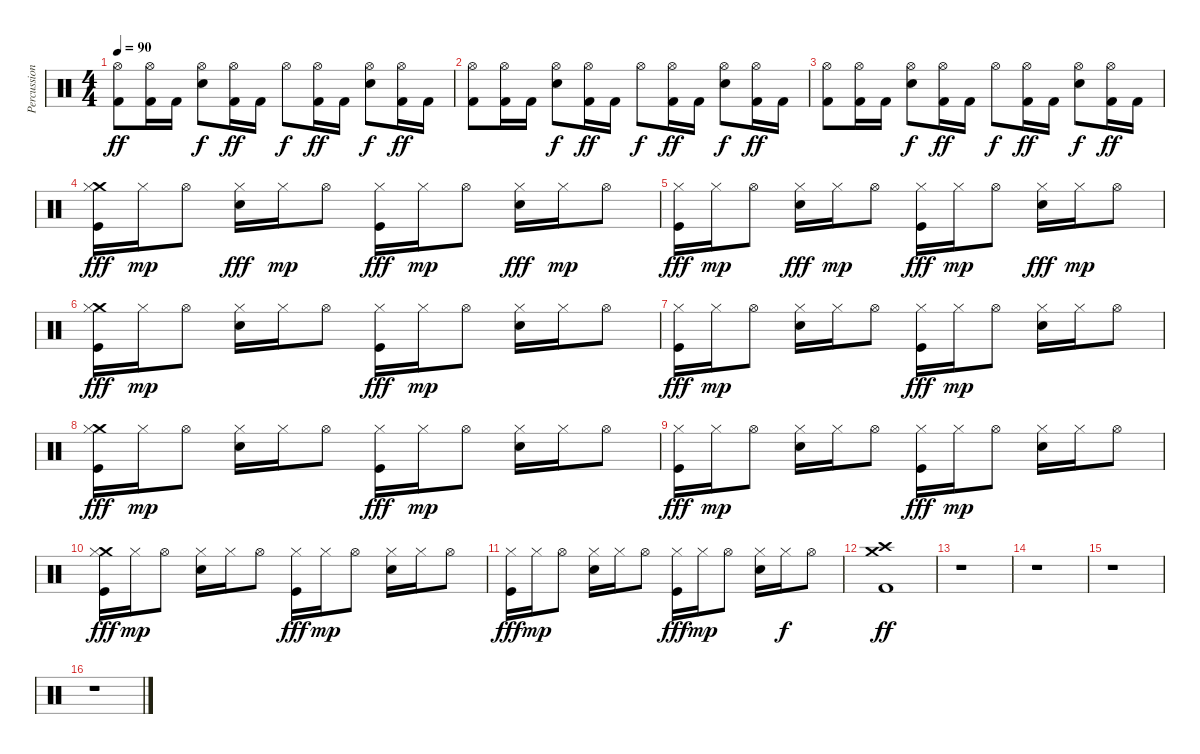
\track ("Percussion" "Percussion") {instrument percussion}
\staff {score}
\articulation defaults
\ts (4 4)
\tempo 90
\clef neutral
\ks c
("Hi-Hat (open)" "Kick (hit) 2").8{dy ff} ("Hi-Hat (open)" "Kick (hit) 2").16 "Kick (hit) 2".16 ("Hi-Hat (open)" "Electric Snare (hit)").8{dy f} ("Hi-Hat (open)" "Kick (hit) 2").16{dy ff} "Kick (hit) 2".16 "Hi-Hat (open)".8{dy f} ("Hi-Hat (open)" "Kick (hit) 2").16{dy ff} "Kick (hit) 2".16 ("Hi-Hat (open)" "Electric Snare (hit)").8{dy f} ("Hi-Hat (open)" "Kick (hit) 2").16{dy ff} "Kick (hit) 2".16 |
("Hi-Hat (open)" "Kick (hit) 2").8 ("Hi-Hat (open)" "Kick (hit) 2").16 "Kick (hit) 2".16 ("Hi-Hat (open)" "Electric Snare (hit)").8{dy f} ("Hi-Hat (open)" "Kick (hit) 2").16{dy ff} "Kick (hit) 2".16 "Hi-Hat (open)".8{dy f} ("Hi-Hat (open)" "Kick (hit) 2").16{dy ff} "Kick (hit) 2".16 ("Hi-Hat (open)" "Electric Snare (hit)").8{dy f} ("Hi-Hat (open)" "Kick (hit) 2").16{dy ff} "Kick (hit) 2".16 |
("Hi-Hat (open)" "Kick (hit) 2").8 ("Hi-Hat (open)" "Kick (hit) 2").16 "Kick (hit) 2".16 ("Hi-Hat (open)" "Electric Snare (hit)").8{dy f} ("Hi-Hat (open)" "Kick (hit) 2").16{dy ff} "Kick (hit) 2".16 "Hi-Hat (open)".8{dy f} ("Hi-Hat (open)" "Kick (hit) 2").16{dy ff} "Kick (hit) 2".16 ("Hi-Hat (open)" "Electric Snare (hit)").8{dy f} ("Hi-Hat (open)" "Kick (hit) 2").16{dy ff} "Kick (hit) 2".16 |
("Crash medium (hit)" "Hi-Hat (closed)" "Kick (hit)").16{dy fff} "Hi-Hat (closed)".16{dy mp} "Hi-Hat (open)".8 ("Hi-Hat (closed)" "Electric Snare (hit)").16{dy fff} "Hi-Hat (closed)".16{dy mp} "Hi-Hat (open)".8 ("Hi-Hat (closed)" "Kick (hit)").16{dy fff} "Hi-Hat (closed)".16{dy mp} "Hi-Hat (open)".8 ("Hi-Hat (closed)" "Electric Snare (hit)").16{dy fff} "Hi-Hat (closed)".16{dy mp} "Hi-Hat (open)".8 |
("Hi-Hat (closed)" "Kick (hit)").16{dy fff} "Hi-Hat (closed)".16{dy mp} "Hi-Hat (open)".8 ("Hi-Hat (closed)" "Electric Snare (hit)").16{dy fff} "Hi-Hat (closed)".16{dy mp} "Hi-Hat (open)".8 ("Hi-Hat (closed)" "Kick (hit)").16{dy fff} "Hi-Hat (closed)".16{dy mp} "Hi-Hat (open)".8 ("Hi-Hat (closed)" "Electric Snare (hit)").16{dy fff} "Hi-Hat (closed)".16{dy mp} "Hi-Hat (open)".8 |
("Crash medium (hit)" "Hi-Hat (closed)" "Kick (hit)").16{dy fff} "Hi-Hat (closed)".16{dy mp} "Hi-Hat (open)".8 ("Hi-Hat (closed)" "Electric Snare (hit)").16 "Hi-Hat (closed)".16 "Hi-Hat (open)".8 ("Hi-Hat (closed)" "Kick (hit)").16{dy fff} "Hi-Hat (closed)".16{dy mp} "Hi-Hat (open)".8 ("Hi-Hat (closed)" "Electric Snare (hit)").16 "Hi-Hat (closed)".16 "Hi-Hat (open)".8 |
("Hi-Hat (closed)" "Kick (hit)").16{dy fff} "Hi-Hat (closed)".16{dy mp} "Hi-Hat (open)".8 ("Hi-Hat (closed)" "Electric Snare (hit)").16 "Hi-Hat (closed)".16 "Hi-Hat (open)".8 ("Hi-Hat (closed)" "Kick (hit)").16{dy fff} "Hi-Hat (closed)".16{dy mp} "Hi-Hat (open)".8 ("Hi-Hat (closed)" "Electric Snare (hit)").16 "Hi-Hat (closed)".16 "Hi-Hat (open)".8 |
("Crash medium (hit)" "Hi-Hat (closed)" "Kick (hit)").16{dy fff} "Hi-Hat (closed)".16{dy mp} "Hi-Hat (open)".8 ("Hi-Hat (closed)" "Electric Snare (hit)").16 "Hi-Hat (closed)".16 "Hi-Hat (open)".8 ("Hi-Hat (closed)" "Kick (hit)").16{dy fff} "Hi-Hat (closed)".16{dy mp} "Hi-Hat (open)".8 ("Hi-Hat (closed)" "Electric Snare (hit)").16 "Hi-Hat (closed)".16 "Hi-Hat (open)".8 |
("Hi-Hat (closed)" "Kick (hit)").16{dy fff} "Hi-Hat (closed)".16{dy mp} "Hi-Hat (open)".8 ("Hi-Hat (closed)" "Electric Snare (hit)").16 "Hi-Hat (closed)".16 "Hi-Hat (open)".8 ("Hi-Hat (closed)" "Kick (hit)").16{dy fff} "Hi-Hat (closed)".16{dy mp} "Hi-Hat (open)".8 ("Hi-Hat (closed)" "Electric Snare (hit)").16 "Hi-Hat (closed)".16 "Hi-Hat (open)".8 |
("Crash medium (hit)" "Hi-Hat (closed)" "Kick (hit)").16{dy fff} "Hi-Hat (closed)".16{dy mp} "Hi-Hat (open)".8 ("Hi-Hat (closed)" "Electric Snare (hit)").16 "Hi-Hat (closed)".16 "Hi-Hat (open)".8 ("Hi-Hat (closed)" "Kick (hit)").16{dy fff} "Hi-Hat (closed)".16{dy mp} "Hi-Hat (open)".8 ("Hi-Hat (closed)" "Electric Snare (hit)").16 "Hi-Hat (closed)".16 "Hi-Hat (open)".8 |
("Hi-Hat (closed)" "Kick (hit)").16{dy fff} "Hi-Hat (closed)".16{dy mp} "Hi-Hat (open)".8 ("Hi-Hat (closed)" "Electric Snare (hit)").16 "Hi-Hat (closed)".16 "Hi-Hat (open)".8 ("Hi-Hat (closed)" "Kick (hit)").16{dy fff} "Hi-Hat (closed)".16{dy mp} "Hi-Hat (open)".8 ("Hi-Hat (closed)" "Electric Snare (hit)").16 "Hi-Hat (closed)".16{dy f} "Hi-Hat (open)".8 |
("Crash medium (hit)" "Crash high (hit)" "Kick (hit) 2").1{dy ff} |
r.1 |
r.1 |
r.1 |
r.1
